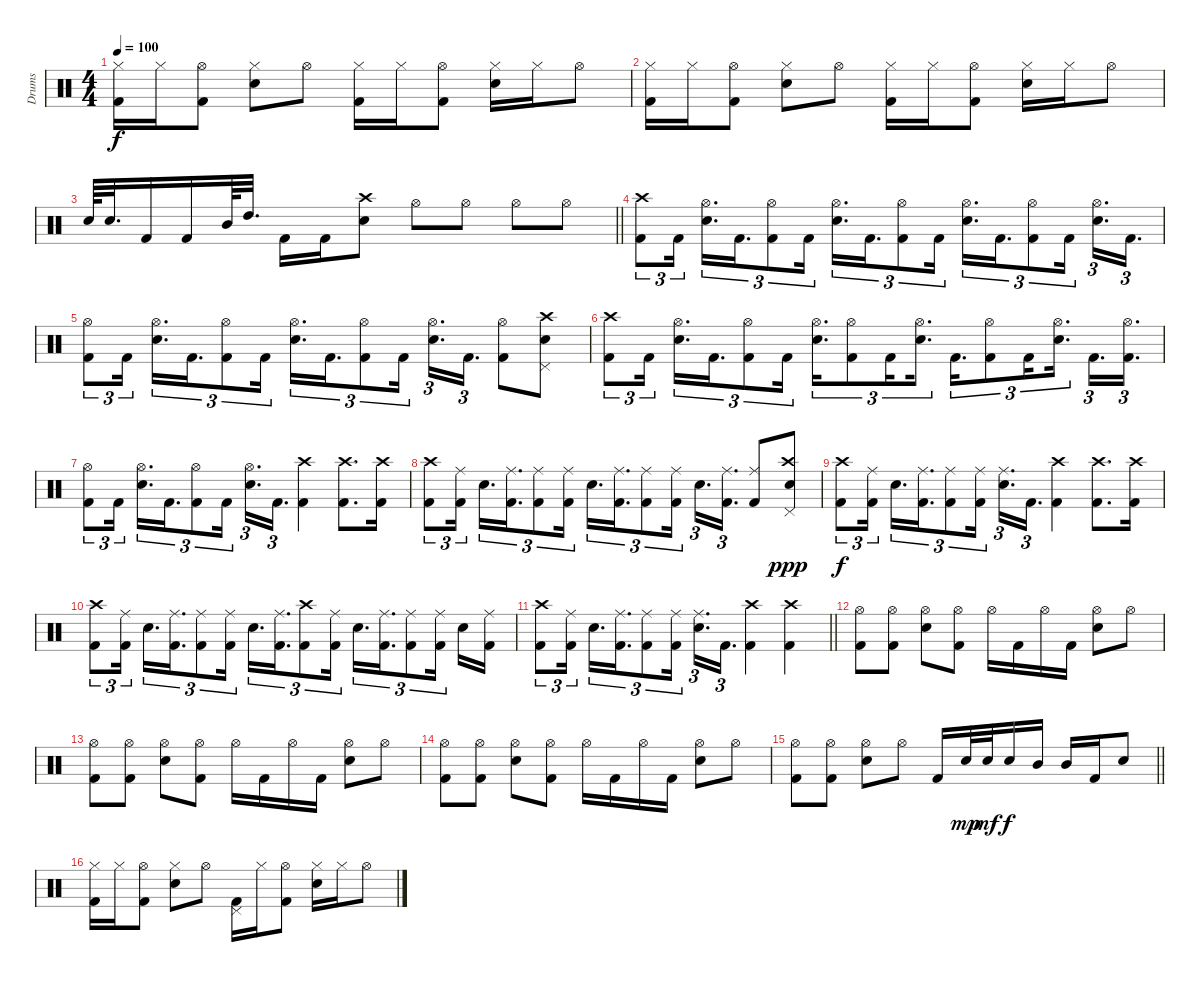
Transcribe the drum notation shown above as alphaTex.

\track ("Drums" "Drums") {instrument percussion}
\staff {score}
\articulation defaults
\ts (4 4)
\tempo 100
\clef neutral
\ks c
("Hi-Hat (closed)" "Kick (hit) 2").16{dy f} "Hi-Hat (closed)".16 ("Hi-Hat (open)" "Kick (hit) 2").8 ("Hi-Hat (closed)" "Electric Snare (hit)").8 "Hi-Hat (open)".8 ("Hi-Hat (closed)" "Kick (hit) 2").16 "Hi-Hat (closed)".16 ("Hi-Hat (open)" "Kick (hit) 2").8 ("Hi-Hat (closed)" "Electric Snare (hit)").16 "Hi-Hat (closed)".16 "Hi-Hat (open)".8 |
("Hi-Hat (closed)" "Kick (hit) 2").16 "Hi-Hat (closed)".16 ("Hi-Hat (open)" "Kick (hit) 2").8 ("Hi-Hat (closed)" "Electric Snare (hit)").8 "Hi-Hat (open)".8 ("Hi-Hat (closed)" "Kick (hit) 2").16 "Hi-Hat (closed)".16 ("Hi-Hat (open)" "Kick (hit) 2").8 ("Hi-Hat (closed)" "Electric Snare (hit)").16 "Hi-Hat (closed)".16 "Hi-Hat (open)".8 |
\barLineRight lightlight "Electric Snare (hit)".64 "Electric Snare (hit)".32{d} "Kick (hit) 2".16 "Kick (hit) 2".16 "Mid Tom (hit)".64 "High Tom (hit)".32{d} "Kick (hit) 2".16 "Kick (hit) 2".16
("Crash high (hit)" "Electric Snare (hit)").8 "Hi-Hat (open)".8 "Hi-Hat (open)".8 "Hi-Hat (open)".8 "Hi-Hat (open)".8 |
("Kick (hit) 2" "Crash high (hit)").8{tu (3 2)} "Kick (hit) 2".16{tu (3 2) beam splitsecondary} ("Hi-Hat (open)" "Electric Snare (hit)").16{d tu (3 2)} "Kick (hit) 2".16{d tu (3 2)} ("Kick (hit) 2" "Hi-Hat (open)").8{tu (3 2)} "Kick (hit) 2".16{tu (3 2) beam splitsecondary} ("Hi-Hat (open)" "Electric Snare (hit)").16{d tu (3 2)} "Kick (hit) 2".16{d tu (3 2)} ("Kick (hit) 2" "Hi-Hat (open)").8{tu (3 2)} "Kick (hit) 2".16{tu (3 2) beam splitsecondary} ("Hi-Hat (open)" "Electric Snare (hit)").16{d tu (3 2)} "Kick (hit) 2".16{d tu (3 2)} ("Kick (hit) 2" "Hi-Hat (open)").8{tu (3 2)} "Kick (hit) 2".16{tu (3 2) beam splitsecondary} ("Hi-Hat (open)" "Electric Snare (hit)").16{d tu (3 2)} "Kick (hit) 2".16{d tu (3 2)} |
("Kick (hit) 2" "Hi-Hat (open)").8{tu (3 2)} "Kick (hit) 2".16{tu (3 2) beam splitsecondary} ("Hi-Hat (open)" "Electric Snare (hit)").16{d tu (3 2)} "Kick (hit) 2".16{d tu (3 2)} ("Kick (hit) 2" "Hi-Hat (open)").8{tu (3 2)} "Kick (hit) 2".16{tu (3 2) beam splitsecondary} ("Hi-Hat (open)" "Electric Snare (hit)").16{d tu (3 2)} "Kick (hit) 2".16{d tu (3 2)} ("Kick (hit) 2" "Hi-Hat (open)").8{tu (3 2)} "Kick (hit) 2".16{tu (3 2) beam splitsecondary} ("Hi-Hat (open)" "Electric Snare (hit)").16{d tu (3 2)} "Kick (hit) 2".16{d tu (3 2)} ("Kick (hit) 2" "Hi-Hat (open)").8 ("Crash high (hit)" "Electric Snare (hit)" "Pedal Hi-Hat (hit)").8 |
("Kick (hit) 2" "Crash high (hit)").8{tu (3 2)} "Kick (hit) 2".16{tu (3 2) beam splitsecondary} ("Hi-Hat (open)" "Electric Snare (hit)").16{d tu (3 2)} "Kick (hit) 2".16{d tu (3 2)} ("Kick (hit) 2" "Hi-Hat (open)").8{tu (3 2)} "Kick (hit) 2".16{tu (3 2) beam splitsecondary} ("Hi-Hat (open)" "Electric Snare (hit)").16{d tu (3 2)} ("Kick (hit) 2" "Hi-Hat (open)").8{tu (3 2)} "Kick (hit) 2".16{tu (3 2) beam splitsecondary} ("Hi-Hat (open)" "Electric Snare (hit)").16{d tu (3 2)} "Kick (hit) 2".16{d tu (3 2)} ("Kick (hit) 2" "Hi-Hat (open)").8{tu (3 2)} "Kick (hit) 2".16{tu (3 2) beam splitsecondary} ("Hi-Hat (open)" "Electric Snare (hit)").16{d tu (3 2)} "Kick (hit) 2".16{d tu (3 2)} ("Kick (hit) 2" "Hi-Hat (open)").16{d tu (3 2)} |
("Kick (hit) 2" "Hi-Hat (open)").8{tu (3 2)} "Kick (hit) 2".16{tu (3 2) beam splitsecondary} ("Hi-Hat (open)" "Electric Snare (hit)").16{d tu (3 2)} "Kick (hit) 2".16{d tu (3 2)} ("Kick (hit) 2" "Hi-Hat (open)").8{tu (3 2)} "Kick (hit) 2".16{tu (3 2) beam splitsecondary} ("Hi-Hat (open)" "Electric Snare (hit)").16{d tu (3 2)} "Kick (hit) 2".16{d tu (3 2)} ("Kick (hit) 2" "Crash high (hit)").4 ("Kick (hit) 2" "Crash high (hit)").8{d} ("Kick (hit) 2" "Crash high (hit)").16 |
("Kick (hit) 2" "Crash high (hit)").8{tu (3 2)} ("Kick (hit) 2" "Ride (middle)").16{tu (3 2) beam splitsecondary} "Electric Snare (hit)".16{d tu (3 2)} ("Kick (hit) 2" "Ride (middle)").16{d tu (3 2)} ("Kick (hit) 2" "Ride (middle)").8{tu (3 2)} ("Kick (hit) 2" "Ride (middle)").16{tu (3 2) beam splitsecondary} "Electric Snare (hit)".16{d tu (3 2)} ("Kick (hit) 2" "Ride (middle)").16{d tu (3 2)} ("Kick (hit) 2" "Ride (middle)").8{tu (3 2)} ("Kick (hit) 2" "Ride (middle)").16{tu (3 2) beam splitsecondary} "Electric Snare (hit)".16{d tu (3 2)} ("Kick (hit) 2" "Ride (middle)").16{d tu (3 2)} ("Kick (hit) 2" "Ride (middle)").8 ("Crash high (hit)" "Electric Snare (hit)" "Pedal Hi-Hat (hit)").8{dy ppp} |
("Kick (hit) 2" "Crash high (hit)").8{tu (3 2) dy f} ("Kick (hit) 2" "Ride (middle)").16{tu (3 2) beam splitsecondary} "Electric Snare (hit)".16{d tu (3 2)} ("Kick (hit) 2" "Ride (middle)").16{d tu (3 2)} ("Kick (hit) 2" "Ride (middle)").8{tu (3 2)} ("Kick (hit) 2" "Ride (middle)").16{tu (3 2) beam splitsecondary} ("Electric Snare (hit)" "Ride (middle)").16{d tu (3 2)} "Kick (hit) 2".16{d tu (3 2)} ("Kick (hit) 2" "Crash high (hit)").4 ("Kick (hit) 2" "Crash high (hit)").8{d} ("Kick (hit) 2" "Crash high (hit)").16 |
("Kick (hit) 2" "Crash high (hit)").8{tu (3 2)} ("Kick (hit) 2" "Ride (middle)").16{tu (3 2) beam splitsecondary} "Electric Snare (hit)".16{d tu (3 2)} ("Kick (hit) 2" "Ride (middle)").16{d tu (3 2)} ("Kick (hit) 2" "Ride (middle)").8{tu (3 2)} ("Kick (hit) 2" "Ride (middle)").16{tu (3 2) beam splitsecondary} "Electric Snare (hit)".16{d tu (3 2)} ("Kick (hit) 2" "Ride (middle)").16{d tu (3 2)} ("Kick (hit) 2" "Crash high (hit)").8{tu (3 2)} ("Kick (hit) 2" "Ride (middle)").16{tu (3 2) beam splitsecondary} "Electric Snare (hit)".16{d tu (3 2)} ("Kick (hit) 2" "Ride (middle)").16{d tu (3 2)} ("Kick (hit) 2" "Ride (middle)").8{tu (3 2)} ("Kick (hit) 2" "Ride (middle)").16{tu (3 2) beam splitsecondary} "Electric Snare (hit)".16 ("Kick (hit) 2" "Ride (middle)").16 |
\barLineRight lightlight
("Kick (hit) 2" "Crash high (hit)").8{tu (3 2)} ("Kick (hit) 2" "Ride (middle)").16{tu (3 2) beam splitsecondary} "Electric Snare (hit)".16{d tu (3 2)} ("Kick (hit) 2" "Ride (middle)").16{d tu (3 2)} ("Kick (hit) 2" "Ride (middle)").8{tu (3 2)} ("Kick (hit) 2" "Ride (middle)").16{tu (3 2) beam splitsecondary} ("Electric Snare (hit)" "Ride (middle)").16{d tu (3 2)} "Kick (hit) 2".16{d tu (3 2)} ("Kick (hit) 2" "Crash high (hit)").4 ("Kick (hit) 2" "Crash high (hit)").4 |
("Hi-Hat (open)" "Kick (hit) 2").8 ("Hi-Hat (open)" "Kick (hit) 2").8 ("Hi-Hat (open)" "Electric Snare (hit)").8 ("Hi-Hat (open)" "Kick (hit) 2").8 "Hi-Hat (open)".16 "Kick (hit) 2".16 "Hi-Hat (open)".16 "Kick (hit) 2".16 ("Hi-Hat (open)" "Electric Snare (hit)").8 "Hi-Hat (open)".8 |
("Hi-Hat (open)" "Kick (hit) 2").8 ("Hi-Hat (open)" "Kick (hit) 2").8 ("Hi-Hat (open)" "Electric Snare (hit)").8 ("Hi-Hat (open)" "Kick (hit) 2").8 "Hi-Hat (open)".16 "Kick (hit) 2".16 "Hi-Hat (open)".16 "Kick (hit) 2".16 ("Hi-Hat (open)" "Electric Snare (hit)").8 "Hi-Hat (open)".8 |
("Hi-Hat (open)" "Kick (hit) 2").8 ("Hi-Hat (open)" "Kick (hit) 2").8 ("Hi-Hat (open)" "Electric Snare (hit)").8 ("Hi-Hat (open)" "Kick (hit) 2").8 "Hi-Hat (open)".16 "Kick (hit) 2".16 "Hi-Hat (open)".16 "Kick (hit) 2".16 ("Hi-Hat (open)" "Electric Snare (hit)").8 "Hi-Hat (open)".8 |
\barLineRight lightlight
("Hi-Hat (open)" "Kick (hit) 2").8 ("Hi-Hat (open)" "Kick (hit) 2").8 ("Hi-Hat (open)" "Electric Snare (hit)").8 "Hi-Hat (open)".8 "Kick (hit) 2".16 "Electric Snare (hit)".32{dy mp} "Electric Snare (hit)".32{dy mf} "Electric Snare (hit)".16{dy f} "Mid Tom (hit)".16 "Mid Tom (hit)".16 "Kick (hit) 2".16 "Electric Snare (hit)".8 |
("Hi-Hat (closed)" "Kick (hit) 2").16 "Hi-Hat (closed)".16 ("Hi-Hat (open)" "Kick (hit) 2").8 ("Hi-Hat (closed)" "Electric Snare (hit)").8 "Hi-Hat (open)".8 ("Pedal Hi-Hat (hit)" "Kick (hit) 2").16 "Hi-Hat (closed)".16 ("Hi-Hat (open)" "Kick (hit) 2").8 ("Hi-Hat (closed)" "Electric Snare (hit)").16 "Hi-Hat (closed)".16 "Hi-Hat (open)".8
